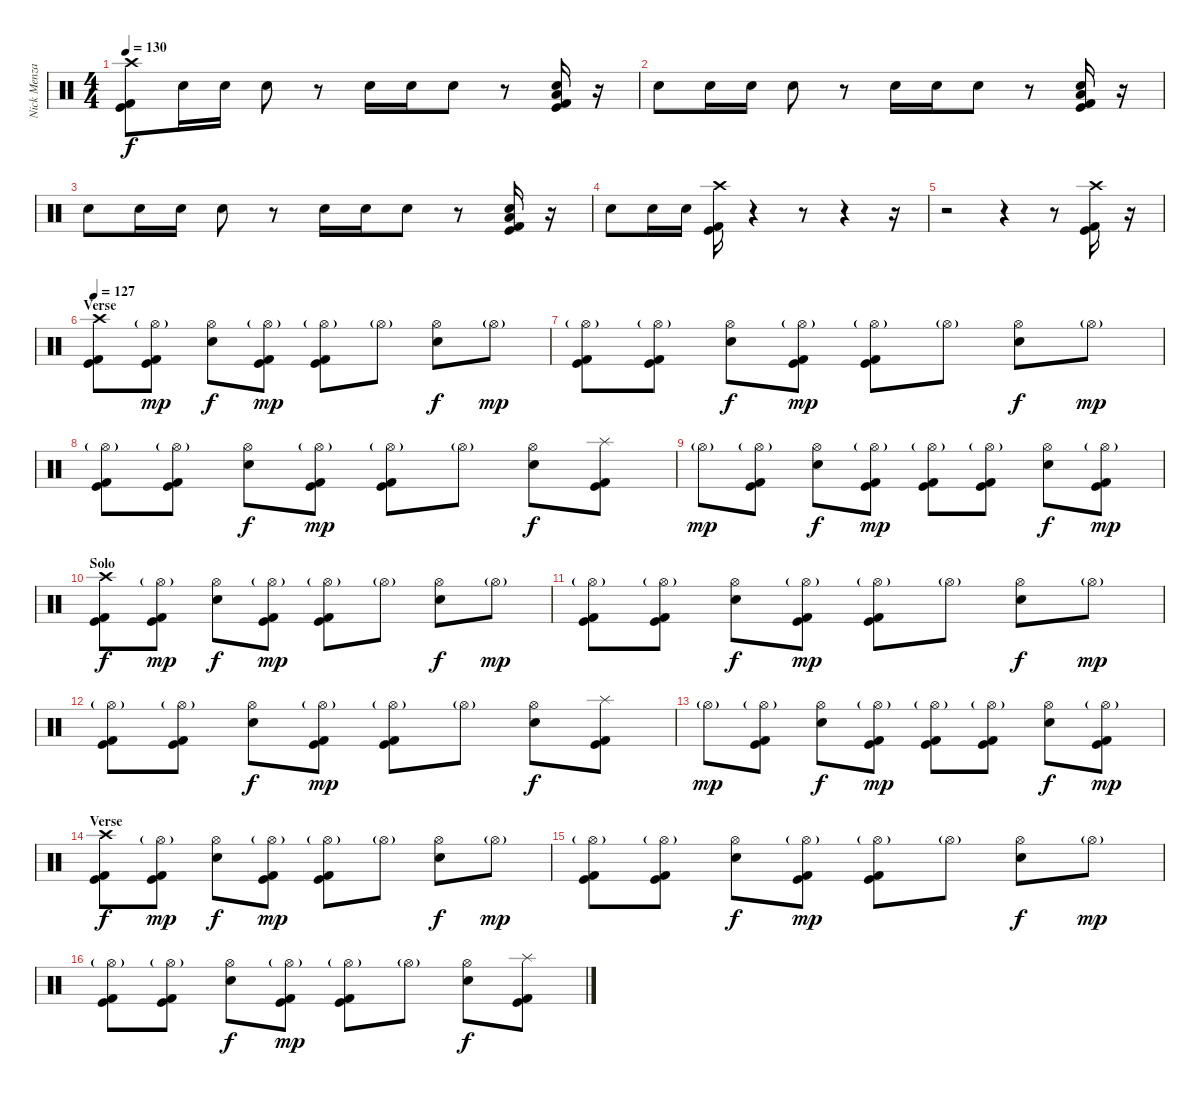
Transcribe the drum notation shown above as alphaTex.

\track ("Nick Menza (Drums)" "Nick Menza") {instrument percussion}
\staff {score}
\articulation defaults
\ts (4 4)
\tempo 130
\clef neutral
\ks c
("Crash high (hit)" "Kick (hit)" "Kick (hit) 2").8{dy f} "Electric Snare (hit)".16 "Electric Snare (hit)".16 "Electric Snare (hit)".8 r.8 "Electric Snare (hit)".16 "Electric Snare (hit)".16 "Electric Snare (hit)".8 r.8 ("Electric Snare (hit)" "Low Floor Tom (hit)" "Kick (hit)" "Kick (hit) 2").16 r.16 |
"Electric Snare (hit)".8 "Electric Snare (hit)".16 "Electric Snare (hit)".16 "Electric Snare (hit)".8 r.8 "Electric Snare (hit)".16 "Electric Snare (hit)".16 "Electric Snare (hit)".8 r.8 ("Electric Snare (hit)" "Low Floor Tom (hit)" "Kick (hit)" "Kick (hit) 2").16 r.16 |
"Electric Snare (hit)".8 "Electric Snare (hit)".16 "Electric Snare (hit)".16 "Electric Snare (hit)".8 r.8 "Electric Snare (hit)".16 "Electric Snare (hit)".16 "Electric Snare (hit)".8 r.8 ("Electric Snare (hit)" "Low Floor Tom (hit)" "Kick (hit)" "Kick (hit) 2").16 r.16 |
"Electric Snare (hit)".8 "Electric Snare (hit)".16 "Electric Snare (hit)".16 ("Crash high (hit)" "Kick (hit)" "Kick (hit) 2").16 r.4 r.8 r.4 r.16 |
r.2 r.4 r.8 ("Crash high (hit)" "Kick (hit)" "Kick (hit) 2").16 r.16 |
\section ("" "Verse")
\tempo 127
("Crash high (hit)" "Kick (hit)" "Kick (hit) 2").8 ("Hi-Hat (open)"{g} "Kick (hit)" "Kick (hit) 2").8{dy mp} ("Hi-Hat (open)" "Electric Snare (hit)").8{dy f} ("Hi-Hat (open)"{g} "Kick (hit)" "Kick (hit) 2").8{dy mp} ("Hi-Hat (open)"{g} "Kick (hit)" "Kick (hit) 2").8 "Hi-Hat (open)"{g}.8 ("Hi-Hat (open)" "Electric Snare (hit)").8{dy f} "Hi-Hat (open)"{g}.8{dy mp} |
("Hi-Hat (open)"{g} "Kick (hit)" "Kick (hit) 2").8 ("Hi-Hat (open)"{g} "Kick (hit)" "Kick (hit) 2").8 ("Hi-Hat (open)" "Electric Snare (hit)").8{dy f} ("Hi-Hat (open)"{g} "Kick (hit)" "Kick (hit) 2").8{dy mp} ("Hi-Hat (open)"{g} "Kick (hit)" "Kick (hit) 2").8 "Hi-Hat (open)"{g}.8 ("Hi-Hat (open)" "Electric Snare (hit)").8{dy f} "Hi-Hat (open)"{g}.8{dy mp} |
("Hi-Hat (open)"{g} "Kick (hit)" "Kick (hit) 2").8 ("Hi-Hat (open)"{g} "Kick (hit)" "Kick (hit) 2").8 ("Hi-Hat (open)" "Electric Snare (hit)").8{dy f} ("Hi-Hat (open)"{g} "Kick (hit)" "Kick (hit) 2").8{dy mp} ("Hi-Hat (open)"{g} "Kick (hit)" "Kick (hit) 2").8 "Hi-Hat (open)"{g}.8 ("Hi-Hat (open)" "Electric Snare (hit)").8{dy f} ("Splash (hit)" "Kick (hit)" "Kick (hit) 2").8 |
"Hi-Hat (open)"{g}.8{dy mp} ("Hi-Hat (open)"{g} "Kick (hit)" "Kick (hit) 2").8 ("Hi-Hat (open)" "Electric Snare (hit)").8{dy f} ("Hi-Hat (open)"{g} "Kick (hit)" "Kick (hit) 2").8{dy mp} ("Hi-Hat (open)"{g} "Kick (hit)" "Kick (hit) 2").8 ("Hi-Hat (open)"{g} "Kick (hit)" "Kick (hit) 2").8 ("Hi-Hat (open)" "Electric Snare (hit)").8{dy f} ("Hi-Hat (open)"{g} "Kick (hit)" "Kick (hit) 2").8{dy mp} |
\section ("" "Solo")
("Crash high (hit)" "Kick (hit)" "Kick (hit) 2").8{dy f} ("Hi-Hat (open)"{g} "Kick (hit)" "Kick (hit) 2").8{dy mp} ("Hi-Hat (open)" "Electric Snare (hit)").8{dy f} ("Hi-Hat (open)"{g} "Kick (hit)" "Kick (hit) 2").8{dy mp} ("Hi-Hat (open)"{g} "Kick (hit)" "Kick (hit) 2").8 "Hi-Hat (open)"{g}.8 ("Hi-Hat (open)" "Electric Snare (hit)").8{dy f} "Hi-Hat (open)"{g}.8{dy mp} |
("Hi-Hat (open)"{g} "Kick (hit)" "Kick (hit) 2").8 ("Hi-Hat (open)"{g} "Kick (hit)" "Kick (hit) 2").8 ("Hi-Hat (open)" "Electric Snare (hit)").8{dy f} ("Hi-Hat (open)"{g} "Kick (hit)" "Kick (hit) 2").8{dy mp} ("Hi-Hat (open)"{g} "Kick (hit)" "Kick (hit) 2").8 "Hi-Hat (open)"{g}.8 ("Hi-Hat (open)" "Electric Snare (hit)").8{dy f} "Hi-Hat (open)"{g}.8{dy mp} |
("Hi-Hat (open)"{g} "Kick (hit)" "Kick (hit) 2").8 ("Hi-Hat (open)"{g} "Kick (hit)" "Kick (hit) 2").8 ("Hi-Hat (open)" "Electric Snare (hit)").8{dy f} ("Hi-Hat (open)"{g} "Kick (hit)" "Kick (hit) 2").8{dy mp} ("Hi-Hat (open)"{g} "Kick (hit)" "Kick (hit) 2").8 "Hi-Hat (open)"{g}.8 ("Hi-Hat (open)" "Electric Snare (hit)").8{dy f} ("Splash (hit)" "Kick (hit)" "Kick (hit) 2").8 |
"Hi-Hat (open)"{g}.8{dy mp} ("Hi-Hat (open)"{g} "Kick (hit)" "Kick (hit) 2").8 ("Hi-Hat (open)" "Electric Snare (hit)").8{dy f} ("Hi-Hat (open)"{g} "Kick (hit)" "Kick (hit) 2").8{dy mp} ("Hi-Hat (open)"{g} "Kick (hit)" "Kick (hit) 2").8 ("Hi-Hat (open)"{g} "Kick (hit)" "Kick (hit) 2").8 ("Hi-Hat (open)" "Electric Snare (hit)").8{dy f} ("Hi-Hat (open)"{g} "Kick (hit)" "Kick (hit) 2").8{dy mp} |
\section ("" "Verse")
("Crash high (hit)" "Kick (hit)" "Kick (hit) 2").8{dy f} ("Hi-Hat (open)"{g} "Kick (hit)" "Kick (hit) 2").8{dy mp} ("Hi-Hat (open)" "Electric Snare (hit)").8{dy f} ("Hi-Hat (open)"{g} "Kick (hit)" "Kick (hit) 2").8{dy mp} ("Hi-Hat (open)"{g} "Kick (hit)" "Kick (hit) 2").8 "Hi-Hat (open)"{g}.8 ("Hi-Hat (open)" "Electric Snare (hit)").8{dy f} "Hi-Hat (open)"{g}.8{dy mp} |
("Hi-Hat (open)"{g} "Kick (hit)" "Kick (hit) 2").8 ("Hi-Hat (open)"{g} "Kick (hit)" "Kick (hit) 2").8 ("Hi-Hat (open)" "Electric Snare (hit)").8{dy f} ("Hi-Hat (open)"{g} "Kick (hit)" "Kick (hit) 2").8{dy mp} ("Hi-Hat (open)"{g} "Kick (hit)" "Kick (hit) 2").8 "Hi-Hat (open)"{g}.8 ("Hi-Hat (open)" "Electric Snare (hit)").8{dy f} "Hi-Hat (open)"{g}.8{dy mp} |
("Hi-Hat (open)"{g} "Kick (hit)" "Kick (hit) 2").8 ("Hi-Hat (open)"{g} "Kick (hit)" "Kick (hit) 2").8 ("Hi-Hat (open)" "Electric Snare (hit)").8{dy f} ("Hi-Hat (open)"{g} "Kick (hit)" "Kick (hit) 2").8{dy mp} ("Hi-Hat (open)"{g} "Kick (hit)" "Kick (hit) 2").8 "Hi-Hat (open)"{g}.8 ("Hi-Hat (open)" "Electric Snare (hit)").8{dy f} ("Splash (hit)" "Kick (hit)" "Kick (hit) 2").8
